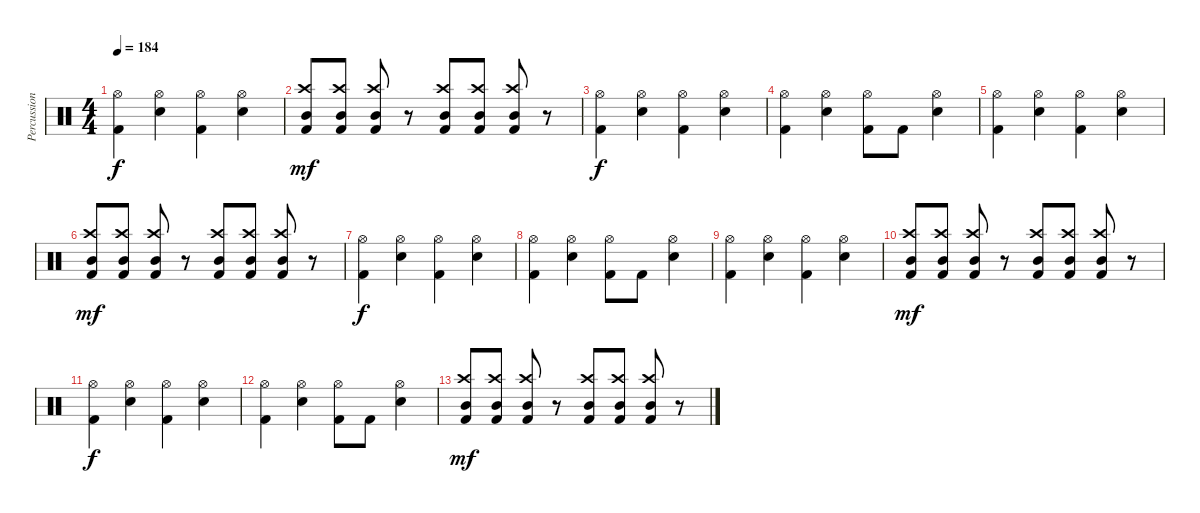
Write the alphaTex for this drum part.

\track ("Percussioni" "Percussion") {instrument percussion}
\staff {score}
\articulation defaults
\ts (4 4)
\tempo 184
\clef neutral
\ks c
("Hi-Hat (open)" "Kick (hit) 2").4{dy f} ("Hi-Hat (open)" "Electric Snare (hit)").4 ("Hi-Hat (open)" "Kick (hit) 2").4 ("Hi-Hat (open)" "Electric Snare (hit)").4 |
("Crash high (hit)" "Mid Tom (hit)" "Kick (hit) 2").8{dy mf} ("Crash high (hit)" "Mid Tom (hit)" "Kick (hit) 2").8 ("Crash high (hit)" "Mid Tom (hit)" "Kick (hit) 2").8 r.8 ("Crash high (hit)" "Mid Tom (hit)" "Kick (hit) 2").8 ("Crash high (hit)" "Mid Tom (hit)" "Kick (hit) 2").8 ("Crash high (hit)" "Mid Tom (hit)" "Kick (hit) 2").8 r.8 |
("Hi-Hat (open)" "Kick (hit) 2").4{dy f} ("Hi-Hat (open)" "Electric Snare (hit)").4 ("Hi-Hat (open)" "Kick (hit) 2").4 ("Hi-Hat (open)" "Electric Snare (hit)").4 |
("Hi-Hat (open)" "Kick (hit) 2").4 ("Hi-Hat (open)" "Electric Snare (hit)").4 ("Hi-Hat (open)" "Kick (hit) 2").8 "Kick (hit) 2".8 ("Hi-Hat (open)" "Electric Snare (hit)").4 |
("Hi-Hat (open)" "Kick (hit) 2").4 ("Hi-Hat (open)" "Electric Snare (hit)").4 ("Hi-Hat (open)" "Kick (hit) 2").4 ("Hi-Hat (open)" "Electric Snare (hit)").4 |
("Crash high (hit)" "Mid Tom (hit)" "Kick (hit) 2").8{dy mf} ("Crash high (hit)" "Mid Tom (hit)" "Kick (hit) 2").8 ("Crash high (hit)" "Mid Tom (hit)" "Kick (hit) 2").8 r.8 ("Crash high (hit)" "Mid Tom (hit)" "Kick (hit) 2").8 ("Crash high (hit)" "Mid Tom (hit)" "Kick (hit) 2").8 ("Crash high (hit)" "Mid Tom (hit)" "Kick (hit) 2").8 r.8 |
("Hi-Hat (open)" "Kick (hit) 2").4{dy f} ("Hi-Hat (open)" "Electric Snare (hit)").4 ("Hi-Hat (open)" "Kick (hit) 2").4 ("Hi-Hat (open)" "Electric Snare (hit)").4 |
("Hi-Hat (open)" "Kick (hit) 2").4 ("Hi-Hat (open)" "Electric Snare (hit)").4 ("Hi-Hat (open)" "Kick (hit) 2").8 "Kick (hit) 2".8 ("Hi-Hat (open)" "Electric Snare (hit)").4 |
("Hi-Hat (open)" "Kick (hit) 2").4 ("Hi-Hat (open)" "Electric Snare (hit)").4 ("Hi-Hat (open)" "Kick (hit) 2").4 ("Hi-Hat (open)" "Electric Snare (hit)").4 |
("Crash high (hit)" "Mid Tom (hit)" "Kick (hit) 2").8{dy mf} ("Crash high (hit)" "Mid Tom (hit)" "Kick (hit) 2").8 ("Crash high (hit)" "Mid Tom (hit)" "Kick (hit) 2").8 r.8 ("Crash high (hit)" "Mid Tom (hit)" "Kick (hit) 2").8 ("Crash high (hit)" "Mid Tom (hit)" "Kick (hit) 2").8 ("Crash high (hit)" "Mid Tom (hit)" "Kick (hit) 2").8 r.8 |
("Hi-Hat (open)" "Kick (hit) 2").4{dy f} ("Hi-Hat (open)" "Electric Snare (hit)").4 ("Hi-Hat (open)" "Kick (hit) 2").4 ("Hi-Hat (open)" "Electric Snare (hit)").4 |
("Hi-Hat (open)" "Kick (hit) 2").4 ("Hi-Hat (open)" "Electric Snare (hit)").4 ("Hi-Hat (open)" "Kick (hit) 2").8 "Kick (hit) 2".8 ("Hi-Hat (open)" "Electric Snare (hit)").4 |
("Crash high (hit)" "Mid Tom (hit)" "Kick (hit) 2").8{dy mf} ("Crash high (hit)" "Mid Tom (hit)" "Kick (hit) 2").8 ("Crash high (hit)" "Mid Tom (hit)" "Kick (hit) 2").8 r.8 ("Crash high (hit)" "Mid Tom (hit)" "Kick (hit) 2").8 ("Crash high (hit)" "Mid Tom (hit)" "Kick (hit) 2").8 ("Crash high (hit)" "Mid Tom (hit)" "Kick (hit) 2").8 r.8
